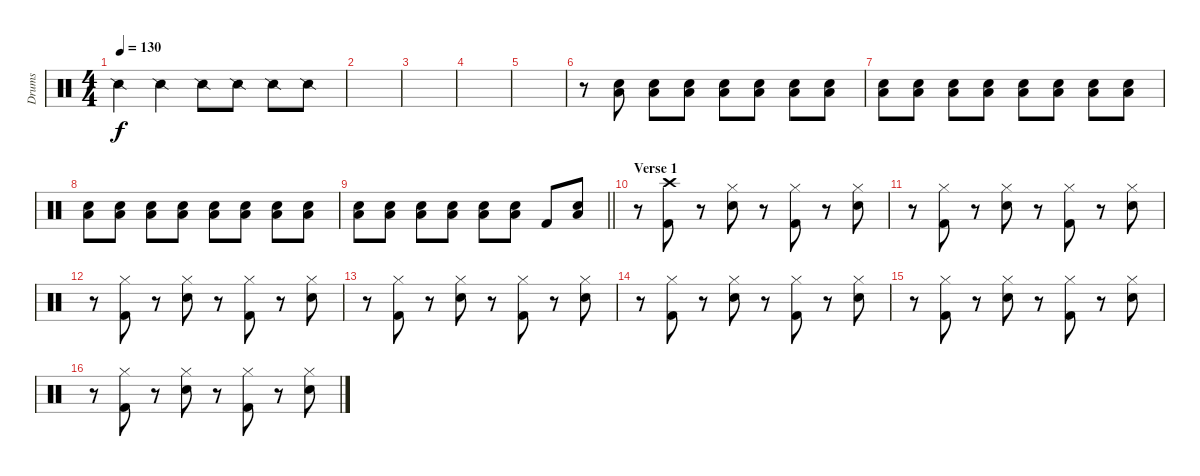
\track ("Drums" "Drums") {instrument percussion}
\staff {score}
\articulation defaults
\ts (4 4)
\tempo 130
\clef neutral
\ks c "Snare (side stick) 2".4{dy f} "Snare (side stick) 2".4 "Snare (side stick) 2".8 "Snare (side stick) 2".8 "Snare (side stick) 2".8 "Snare (side stick) 2".8
|
|
|
|
|
r.8{volume 13} ("Snare (hit) 2" "Low Floor Tom (hit)").8 ("Snare (hit) 2" "Low Floor Tom (hit)").8 ("Snare (hit) 2" "Low Floor Tom (hit)").8 ("Snare (hit) 2" "Low Floor Tom (hit)").8 ("Snare (hit) 2" "Low Floor Tom (hit)").8 ("Snare (hit) 2" "Low Floor Tom (hit)").8 ("Snare (hit) 2" "Low Floor Tom (hit)").8 |
("Snare (hit) 2" "Low Floor Tom (hit)").8 ("Snare (hit) 2" "Low Floor Tom (hit)").8 ("Snare (hit) 2" "Low Floor Tom (hit)").8 ("Snare (hit) 2" "Low Floor Tom (hit)").8 ("Snare (hit) 2" "Low Floor Tom (hit)").8 ("Snare (hit) 2" "Low Floor Tom (hit)").8 ("Snare (hit) 2" "Low Floor Tom (hit)").8 ("Snare (hit) 2" "Low Floor Tom (hit)").8 |
("Snare (hit) 2" "Low Floor Tom (hit)").8 ("Snare (hit) 2" "Low Floor Tom (hit)").8 ("Snare (hit) 2" "Low Floor Tom (hit)").8 ("Snare (hit) 2" "Low Floor Tom (hit)").8 ("Snare (hit) 2" "Low Floor Tom (hit)").8 ("Snare (hit) 2" "Low Floor Tom (hit)").8 ("Snare (hit) 2" "Low Floor Tom (hit)").8 ("Snare (hit) 2" "Low Floor Tom (hit)").8 |
\barLineRight lightlight
("Snare (hit) 2" "Low Floor Tom (hit)").8 ("Snare (hit) 2" "Low Floor Tom (hit)").8 ("Snare (hit) 2" "Low Floor Tom (hit)").8 ("Snare (hit) 2" "Low Floor Tom (hit)").8 ("Snare (hit) 2" "Low Floor Tom (hit)").8 ("Snare (hit) 2" "Low Floor Tom (hit)").8 "Kick (hit) 2".8 ("Snare (hit) 2" "Low Floor Tom (hit)").8 |
\section ("" "Verse 1")
r.8 ("Crash high (hit)" "Kick (hit) 2").8 r.8 ("Hi-Hat (closed)" "Snare (hit) 2").8 r.8 ("Hi-Hat (closed)" "Kick (hit) 2").8 r.8 ("Hi-Hat (closed)" "Snare (hit) 2").8 |
r.8 ("Hi-Hat (closed)" "Kick (hit) 2").8 r.8 ("Hi-Hat (closed)" "Snare (hit) 2").8 r.8 ("Hi-Hat (closed)" "Kick (hit) 2").8 r.8 ("Hi-Hat (closed)" "Snare (hit) 2").8 |
r.8 ("Hi-Hat (closed)" "Kick (hit) 2").8 r.8 ("Hi-Hat (closed)" "Snare (hit) 2").8 r.8 ("Hi-Hat (closed)" "Kick (hit) 2").8 r.8 ("Hi-Hat (closed)" "Snare (hit) 2").8 |
r.8 ("Hi-Hat (closed)" "Kick (hit) 2").8 r.8 ("Hi-Hat (closed)" "Snare (hit) 2").8 r.8 ("Hi-Hat (closed)" "Kick (hit) 2").8 r.8 ("Hi-Hat (closed)" "Snare (hit) 2").8 |
r.8 ("Hi-Hat (closed)" "Kick (hit) 2").8 r.8 ("Hi-Hat (closed)" "Snare (hit) 2").8 r.8 ("Hi-Hat (closed)" "Kick (hit) 2").8 r.8 ("Hi-Hat (closed)" "Snare (hit) 2").8 |
r.8 ("Hi-Hat (closed)" "Kick (hit) 2").8 r.8 ("Hi-Hat (closed)" "Snare (hit) 2").8 r.8 ("Hi-Hat (closed)" "Kick (hit) 2").8 r.8 ("Hi-Hat (closed)" "Snare (hit) 2").8 |
r.8 ("Hi-Hat (closed)" "Kick (hit) 2").8 r.8 ("Hi-Hat (closed)" "Snare (hit) 2").8 r.8 ("Hi-Hat (closed)" "Kick (hit) 2").8 r.8 ("Hi-Hat (closed)" "Snare (hit) 2").8
